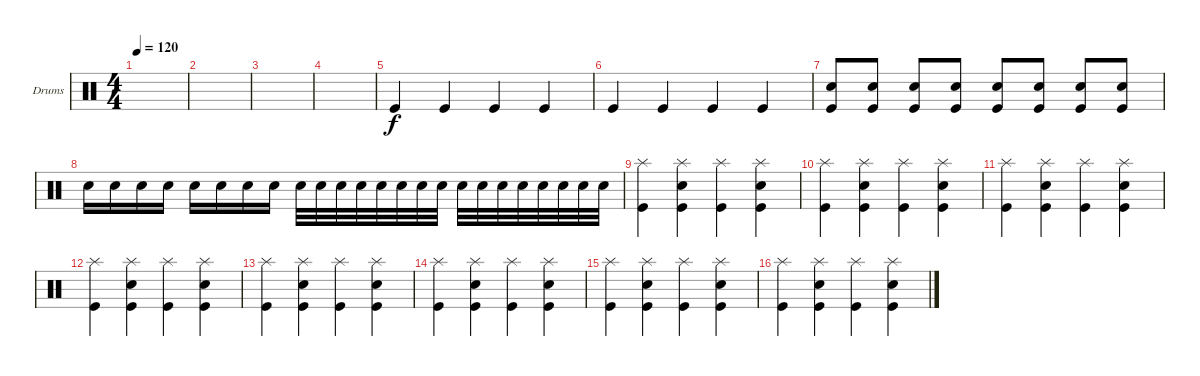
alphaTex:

\bracketExtendMode groupsimilarinstruments
\firstSystemTrackNameOrientation horizontal
\otherSystemsTrackNameOrientation horizontal
\track ("Drumkit" "Drums") {instrument percussion}
\staff {score}
\articulation defaults
\ts (4 4)
\tempo 120
\clef neutral
\ks c
|
|
|
|
"Kick (hit)".4 "Kick (hit)".4 "Kick (hit)".4 "Kick (hit)".4 |
"Kick (hit)".4 "Kick (hit)".4 "Kick (hit)".4 "Kick (hit)".4 |
("Kick (hit)" "Snare (hit) 2").8 ("Kick (hit)" "Snare (hit) 2").8 ("Kick (hit)" "Snare (hit) 2").8 ("Kick (hit)" "Snare (hit) 2").8 ("Kick (hit)" "Snare (hit) 2").8 ("Kick (hit)" "Snare (hit) 2").8 ("Kick (hit)" "Snare (hit) 2").8 ("Kick (hit)" "Snare (hit) 2").8 |
"Snare (hit) 2".16 "Snare (hit) 2".16 "Snare (hit) 2".16 "Snare (hit) 2".16 "Snare (hit) 2".16 "Snare (hit) 2".16 "Snare (hit) 2".16 "Snare (hit) 2".16 "Snare (hit) 2".32 "Snare (hit) 2".32 "Snare (hit) 2".32 "Snare (hit) 2".32 "Snare (hit) 2".32 "Snare (hit) 2".32 "Snare (hit) 2".32 "Snare (hit) 2".32 "Snare (hit) 2".32 "Snare (hit) 2".32 "Snare (hit) 2".32 "Snare (hit) 2".32 "Snare (hit) 2".32 "Snare (hit) 2".32 "Snare (hit) 2".32 "Snare (hit) 2".32 |
("Splash (hit)" "Kick (hit)").4 ("Splash (hit)" "Kick (hit)" "Snare (hit) 2").4 ("Splash (hit)" "Kick (hit)").4 ("Splash (hit)" "Kick (hit)" "Snare (hit) 2").4 |
("Splash (hit)" "Kick (hit)").4 ("Splash (hit)" "Kick (hit)" "Snare (hit) 2").4 ("Splash (hit)" "Kick (hit)").4 ("Splash (hit)" "Kick (hit)" "Snare (hit) 2").4 |
("Splash (hit)" "Kick (hit)").4 ("Splash (hit)" "Kick (hit)" "Snare (hit) 2").4 ("Splash (hit)" "Kick (hit)").4 ("Splash (hit)" "Kick (hit)" "Snare (hit) 2").4 |
("Splash (hit)" "Kick (hit)").4 ("Splash (hit)" "Kick (hit)" "Snare (hit) 2").4 ("Splash (hit)" "Kick (hit)").4 ("Splash (hit)" "Kick (hit)" "Snare (hit) 2").4 |
("Splash (hit)" "Kick (hit)").4 ("Splash (hit)" "Kick (hit)" "Snare (hit) 2").4 ("Splash (hit)" "Kick (hit)").4 ("Splash (hit)" "Kick (hit)" "Snare (hit) 2").4 |
("Splash (hit)" "Kick (hit)").4 ("Splash (hit)" "Kick (hit)" "Snare (hit) 2").4 ("Splash (hit)" "Kick (hit)").4 ("Splash (hit)" "Kick (hit)" "Snare (hit) 2").4 |
("Splash (hit)" "Kick (hit)").4 ("Splash (hit)" "Kick (hit)" "Snare (hit) 2").4 ("Splash (hit)" "Kick (hit)").4 ("Splash (hit)" "Kick (hit)" "Snare (hit) 2").4 |
("Splash (hit)" "Kick (hit)").4 ("Splash (hit)" "Kick (hit)" "Snare (hit) 2").4 ("Splash (hit)" "Kick (hit)").4 ("Splash (hit)" "Kick (hit)" "Snare (hit) 2").4
